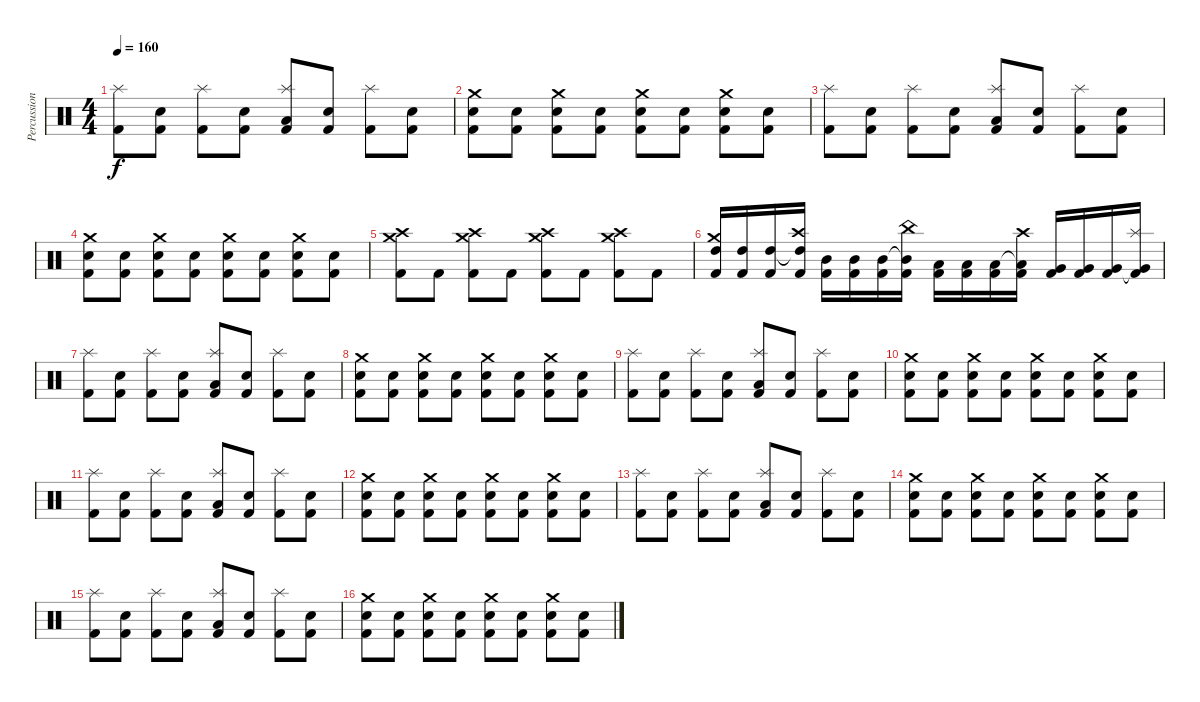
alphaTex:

\track ("Percussion" "Percussion") {instrument percussion}
\staff {score}
\articulation defaults
\ts (4 4)
\tempo 160
\clef neutral
\ks c
("Kick (hit) 2" "Splash (hit)").8{dy f} ("Kick (hit) 2" "Snare (hit) 2").8 ("Kick (hit) 2" "Splash (hit)").8 ("Kick (hit) 2" "Snare (hit) 2").8 ("Kick (hit) 2" "Low Tom (hit)" "Splash (hit)").8 ("Kick (hit) 2" "Snare (hit) 2").8 ("Kick (hit) 2" "Splash (hit)").8 ("Kick (hit) 2" "Snare (hit) 2").8 |
("Kick (hit) 2" "Snare (hit) 2" "Crash medium (hit)").8 ("Kick (hit) 2" "Snare (hit) 2").8 ("Kick (hit) 2" "Snare (hit) 2" "Crash medium (hit)").8 ("Kick (hit) 2" "Snare (hit) 2").8 ("Kick (hit) 2" "Snare (hit) 2" "Crash medium (hit)").8 ("Kick (hit) 2" "Snare (hit) 2").8 ("Kick (hit) 2" "Snare (hit) 2" "Crash medium (hit)").8 ("Kick (hit) 2" "Snare (hit) 2").8 |
("Kick (hit) 2" "Splash (hit)").8 ("Kick (hit) 2" "Snare (hit) 2").8 ("Kick (hit) 2" "Splash (hit)").8 ("Kick (hit) 2" "Snare (hit) 2").8 ("Kick (hit) 2" "Low Tom (hit)" "Splash (hit)").8 ("Kick (hit) 2" "Snare (hit) 2").8 ("Kick (hit) 2" "Splash (hit)").8 ("Kick (hit) 2" "Snare (hit) 2").8 |
("Kick (hit) 2" "Snare (hit) 2" "Crash medium (hit)").8 ("Kick (hit) 2" "Snare (hit) 2").8 ("Kick (hit) 2" "Snare (hit) 2" "Crash medium (hit)").8 ("Kick (hit) 2" "Snare (hit) 2").8 ("Kick (hit) 2" "Snare (hit) 2" "Crash medium (hit)").8 ("Kick (hit) 2" "Snare (hit) 2").8 ("Kick (hit) 2" "Snare (hit) 2" "Crash medium (hit)").8 ("Kick (hit) 2" "Snare (hit) 2").8 |
("Kick (hit) 2" "Crash medium (hit)" "Crash high (hit)").8 "Kick (hit) 2".8 ("Kick (hit) 2" "Crash medium (hit)" "Crash high (hit)").8 "Kick (hit) 2".8 ("Kick (hit) 2" "Crash medium (hit)" "Crash high (hit)").8 "Kick (hit) 2".8 ("Kick (hit) 2" "Crash medium (hit)" "Crash high (hit)").8 "Kick (hit) 2".8 |
("Kick (hit) 2" "High Tom (hit)" "Crash medium (hit)").16 ("Kick (hit) 2" "High Tom (hit)").16 ("Kick (hit) 2" "High Tom (hit)").16 ("Kick (hit) 2" "High Tom (hit)"{t} "Crash high (hit)").16 ("Kick (hit) 2" "Mid Tom (hit)").16 ("Kick (hit) 2" "Mid Tom (hit)").16 ("Kick (hit) 2" "Mid Tom (hit)").16 ("Kick (hit) 2" "Mid Tom (hit)"{t} "China (hit)").16 ("Kick (hit) 2" "Low Tom (hit)").16 ("Kick (hit) 2" "Low Tom (hit)").16 ("Kick (hit) 2" "Low Tom (hit)").16 ("Kick (hit) 2" "Low Tom (hit)"{t} "Crash high (hit)").16 ("Kick (hit) 2" "Very Low Tom (hit)").16 ("Kick (hit) 2" "Very Low Tom (hit)").16 ("Kick (hit) 2" "Very Low Tom (hit)").16 ("Kick (hit) 2" "Very Low Tom (hit)"{t} "Splash (hit)").16 |
("Kick (hit) 2" "Splash (hit)").8 ("Kick (hit) 2" "Snare (hit) 2").8 ("Kick (hit) 2" "Splash (hit)").8 ("Kick (hit) 2" "Snare (hit) 2").8 ("Kick (hit) 2" "Low Tom (hit)" "Splash (hit)").8 ("Kick (hit) 2" "Snare (hit) 2").8 ("Kick (hit) 2" "Splash (hit)").8 ("Kick (hit) 2" "Snare (hit) 2").8 |
("Kick (hit) 2" "Snare (hit) 2" "Crash medium (hit)").8 ("Kick (hit) 2" "Snare (hit) 2").8 ("Kick (hit) 2" "Snare (hit) 2" "Crash medium (hit)").8 ("Kick (hit) 2" "Snare (hit) 2").8 ("Kick (hit) 2" "Snare (hit) 2" "Crash medium (hit)").8 ("Kick (hit) 2" "Snare (hit) 2").8 ("Kick (hit) 2" "Snare (hit) 2" "Crash medium (hit)").8 ("Kick (hit) 2" "Snare (hit) 2").8 |
("Kick (hit) 2" "Splash (hit)").8 ("Kick (hit) 2" "Snare (hit) 2").8 ("Kick (hit) 2" "Splash (hit)").8 ("Kick (hit) 2" "Snare (hit) 2").8 ("Kick (hit) 2" "Low Tom (hit)" "Splash (hit)").8 ("Kick (hit) 2" "Snare (hit) 2").8 ("Kick (hit) 2" "Splash (hit)").8 ("Kick (hit) 2" "Snare (hit) 2").8 |
("Kick (hit) 2" "Snare (hit) 2" "Crash medium (hit)").8 ("Kick (hit) 2" "Snare (hit) 2").8 ("Kick (hit) 2" "Snare (hit) 2" "Crash medium (hit)").8 ("Kick (hit) 2" "Snare (hit) 2").8 ("Kick (hit) 2" "Snare (hit) 2" "Crash medium (hit)").8 ("Kick (hit) 2" "Snare (hit) 2").8 ("Kick (hit) 2" "Snare (hit) 2" "Crash medium (hit)").8 ("Kick (hit) 2" "Snare (hit) 2").8 |
("Kick (hit) 2" "Splash (hit)").8 ("Kick (hit) 2" "Snare (hit) 2").8 ("Kick (hit) 2" "Splash (hit)").8 ("Kick (hit) 2" "Snare (hit) 2").8 ("Kick (hit) 2" "Low Tom (hit)" "Splash (hit)").8 ("Kick (hit) 2" "Snare (hit) 2").8 ("Kick (hit) 2" "Splash (hit)").8 ("Kick (hit) 2" "Snare (hit) 2").8 |
("Kick (hit) 2" "Snare (hit) 2" "Crash medium (hit)").8 ("Kick (hit) 2" "Snare (hit) 2").8 ("Kick (hit) 2" "Snare (hit) 2" "Crash medium (hit)").8 ("Kick (hit) 2" "Snare (hit) 2").8 ("Kick (hit) 2" "Snare (hit) 2" "Crash medium (hit)").8 ("Kick (hit) 2" "Snare (hit) 2").8 ("Kick (hit) 2" "Snare (hit) 2" "Crash medium (hit)").8 ("Kick (hit) 2" "Snare (hit) 2").8 |
("Kick (hit) 2" "Splash (hit)").8 ("Kick (hit) 2" "Snare (hit) 2").8 ("Kick (hit) 2" "Splash (hit)").8 ("Kick (hit) 2" "Snare (hit) 2").8 ("Kick (hit) 2" "Low Tom (hit)" "Splash (hit)").8 ("Kick (hit) 2" "Snare (hit) 2").8 ("Kick (hit) 2" "Splash (hit)").8 ("Kick (hit) 2" "Snare (hit) 2").8 |
("Kick (hit) 2" "Snare (hit) 2" "Crash medium (hit)").8 ("Kick (hit) 2" "Snare (hit) 2").8 ("Kick (hit) 2" "Snare (hit) 2" "Crash medium (hit)").8 ("Kick (hit) 2" "Snare (hit) 2").8 ("Kick (hit) 2" "Snare (hit) 2" "Crash medium (hit)").8 ("Kick (hit) 2" "Snare (hit) 2").8 ("Kick (hit) 2" "Snare (hit) 2" "Crash medium (hit)").8 ("Kick (hit) 2" "Snare (hit) 2").8 |
("Kick (hit) 2" "Splash (hit)").8 ("Kick (hit) 2" "Snare (hit) 2").8 ("Kick (hit) 2" "Splash (hit)").8 ("Kick (hit) 2" "Snare (hit) 2").8 ("Kick (hit) 2" "Low Tom (hit)" "Splash (hit)").8 ("Kick (hit) 2" "Snare (hit) 2").8 ("Kick (hit) 2" "Splash (hit)").8 ("Kick (hit) 2" "Snare (hit) 2").8 |
("Kick (hit) 2" "Snare (hit) 2" "Crash medium (hit)").8 ("Kick (hit) 2" "Snare (hit) 2").8 ("Kick (hit) 2" "Snare (hit) 2" "Crash medium (hit)").8 ("Kick (hit) 2" "Snare (hit) 2").8 ("Kick (hit) 2" "Snare (hit) 2" "Crash medium (hit)").8 ("Kick (hit) 2" "Snare (hit) 2").8 ("Kick (hit) 2" "Snare (hit) 2" "Crash medium (hit)").8 ("Kick (hit) 2" "Snare (hit) 2").8
